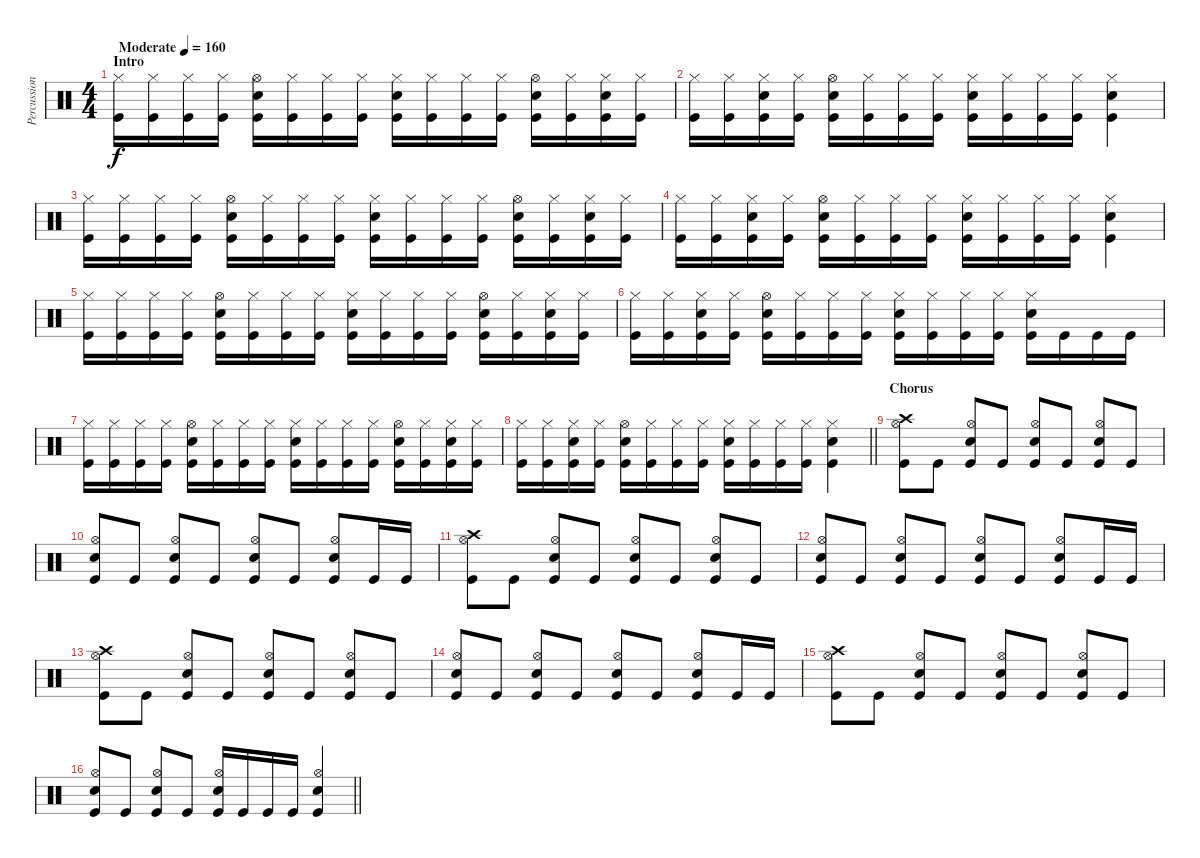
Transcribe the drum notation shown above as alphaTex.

\track ("Percussion" "Percussion") {instrument percussion}
\staff {score}
\articulation defaults
\ts (4 4)
\section ("" "Intro")
\tempo (160 "Moderate")
\clef neutral
\ks c
("Hi-Hat (closed)" "Kick (hit)").16{dy f} ("Hi-Hat (closed)" "Kick (hit)").16 ("Hi-Hat (closed)" "Kick (hit)").16 ("Hi-Hat (closed)" "Kick (hit)").16 ("Hi-Hat (open)" "Electric Snare (hit)" "Kick (hit)").16 ("Hi-Hat (closed)" "Kick (hit)").16 ("Hi-Hat (closed)" "Kick (hit)").16 ("Hi-Hat (closed)" "Kick (hit)").16 ("Hi-Hat (closed)" "Electric Snare (hit)" "Kick (hit)").16 ("Hi-Hat (closed)" "Kick (hit)").16 ("Hi-Hat (closed)" "Kick (hit)").16 ("Hi-Hat (closed)" "Kick (hit)").16 ("Hi-Hat (open)" "Electric Snare (hit)" "Kick (hit)").16 ("Hi-Hat (closed)" "Kick (hit)").16 ("Hi-Hat (closed)" "Electric Snare (hit)" "Kick (hit)").16 ("Hi-Hat (closed)" "Kick (hit)").16 |
("Hi-Hat (closed)" "Kick (hit)").16 ("Hi-Hat (closed)" "Kick (hit)").16 ("Hi-Hat (closed)" "Electric Snare (hit)" "Kick (hit)").16 ("Hi-Hat (closed)" "Kick (hit)").16 ("Hi-Hat (open)" "Electric Snare (hit)" "Kick (hit)").16 ("Hi-Hat (closed)" "Kick (hit)").16 ("Hi-Hat (closed)" "Kick (hit)").16 ("Hi-Hat (closed)" "Kick (hit)").16 ("Hi-Hat (closed)" "Electric Snare (hit)" "Kick (hit)").16 ("Hi-Hat (closed)" "Kick (hit)").16 ("Hi-Hat (closed)" "Kick (hit)").16 ("Hi-Hat (closed)" "Kick (hit)").16 ("Hi-Hat (closed)" "Electric Snare (hit)" "Kick (hit)").4 |
("Hi-Hat (closed)" "Kick (hit)").16 ("Hi-Hat (closed)" "Kick (hit)").16 ("Hi-Hat (closed)" "Kick (hit)").16 ("Hi-Hat (closed)" "Kick (hit)").16 ("Hi-Hat (open)" "Electric Snare (hit)" "Kick (hit)").16 ("Hi-Hat (closed)" "Kick (hit)").16 ("Hi-Hat (closed)" "Kick (hit)").16 ("Hi-Hat (closed)" "Kick (hit)").16 ("Hi-Hat (closed)" "Electric Snare (hit)" "Kick (hit)").16 ("Hi-Hat (closed)" "Kick (hit)").16 ("Hi-Hat (closed)" "Kick (hit)").16 ("Hi-Hat (closed)" "Kick (hit)").16 ("Hi-Hat (open)" "Electric Snare (hit)" "Kick (hit)").16 ("Hi-Hat (closed)" "Kick (hit)").16 ("Hi-Hat (closed)" "Electric Snare (hit)" "Kick (hit)").16 ("Hi-Hat (closed)" "Kick (hit)").16 |
("Hi-Hat (closed)" "Kick (hit)").16 ("Hi-Hat (closed)" "Kick (hit)").16 ("Hi-Hat (closed)" "Electric Snare (hit)" "Kick (hit)").16 ("Hi-Hat (closed)" "Kick (hit)").16 ("Hi-Hat (open)" "Electric Snare (hit)" "Kick (hit)").16 ("Hi-Hat (closed)" "Kick (hit)").16 ("Hi-Hat (closed)" "Kick (hit)").16 ("Hi-Hat (closed)" "Kick (hit)").16 ("Hi-Hat (closed)" "Electric Snare (hit)" "Kick (hit)").16 ("Hi-Hat (closed)" "Kick (hit)").16 ("Hi-Hat (closed)" "Kick (hit)").16 ("Hi-Hat (closed)" "Kick (hit)").16 ("Hi-Hat (closed)" "Electric Snare (hit)" "Kick (hit)").4 |
("Hi-Hat (closed)" "Kick (hit)").16 ("Hi-Hat (closed)" "Kick (hit)").16 ("Hi-Hat (closed)" "Kick (hit)").16 ("Hi-Hat (closed)" "Kick (hit)").16 ("Hi-Hat (open)" "Electric Snare (hit)" "Kick (hit)").16 ("Hi-Hat (closed)" "Kick (hit)").16 ("Hi-Hat (closed)" "Kick (hit)").16 ("Hi-Hat (closed)" "Kick (hit)").16 ("Hi-Hat (closed)" "Electric Snare (hit)" "Kick (hit)").16 ("Hi-Hat (closed)" "Kick (hit)").16 ("Hi-Hat (closed)" "Kick (hit)").16 ("Hi-Hat (closed)" "Kick (hit)").16 ("Hi-Hat (open)" "Electric Snare (hit)" "Kick (hit)").16 ("Hi-Hat (closed)" "Kick (hit)").16 ("Hi-Hat (closed)" "Electric Snare (hit)" "Kick (hit)").16 ("Hi-Hat (closed)" "Kick (hit)").16 |
("Hi-Hat (closed)" "Kick (hit)").16 ("Hi-Hat (closed)" "Kick (hit)").16 ("Hi-Hat (closed)" "Electric Snare (hit)" "Kick (hit)").16 ("Hi-Hat (closed)" "Kick (hit)").16 ("Hi-Hat (open)" "Electric Snare (hit)" "Kick (hit)").16 ("Hi-Hat (closed)" "Kick (hit)").16 ("Hi-Hat (closed)" "Kick (hit)").16 ("Hi-Hat (closed)" "Kick (hit)").16 ("Hi-Hat (closed)" "Electric Snare (hit)" "Kick (hit)").16 ("Hi-Hat (closed)" "Kick (hit)").16 ("Hi-Hat (closed)" "Kick (hit)").16 ("Hi-Hat (closed)" "Kick (hit)").16 ("Hi-Hat (closed)" "Electric Snare (hit)" "Kick (hit)").16 "Kick (hit)".16 "Kick (hit)".16 "Kick (hit)".16 |
("Hi-Hat (closed)" "Kick (hit)").16 ("Hi-Hat (closed)" "Kick (hit)").16 ("Hi-Hat (closed)" "Kick (hit)").16 ("Hi-Hat (closed)" "Kick (hit)").16 ("Hi-Hat (open)" "Electric Snare (hit)" "Kick (hit)").16 ("Hi-Hat (closed)" "Kick (hit)").16 ("Hi-Hat (closed)" "Kick (hit)").16 ("Hi-Hat (closed)" "Kick (hit)").16 ("Hi-Hat (closed)" "Electric Snare (hit)" "Kick (hit)").16 ("Hi-Hat (closed)" "Kick (hit)").16 ("Hi-Hat (closed)" "Kick (hit)").16 ("Hi-Hat (closed)" "Kick (hit)").16 ("Hi-Hat (open)" "Electric Snare (hit)" "Kick (hit)").16 ("Hi-Hat (closed)" "Kick (hit)").16 ("Hi-Hat (closed)" "Electric Snare (hit)" "Kick (hit)").16 ("Hi-Hat (closed)" "Kick (hit)").16 |
\barLineRight lightlight
("Hi-Hat (closed)" "Kick (hit)").16 ("Hi-Hat (closed)" "Kick (hit)").16 ("Hi-Hat (closed)" "Electric Snare (hit)" "Kick (hit)").16 ("Hi-Hat (closed)" "Kick (hit)").16 ("Hi-Hat (open)" "Electric Snare (hit)" "Kick (hit)").16 ("Hi-Hat (closed)" "Kick (hit)").16 ("Hi-Hat (closed)" "Kick (hit)").16 ("Hi-Hat (closed)" "Kick (hit)").16 ("Hi-Hat (closed)" "Electric Snare (hit)" "Kick (hit)").16 ("Hi-Hat (closed)" "Kick (hit)").16 ("Hi-Hat (closed)" "Kick (hit)").16 ("Hi-Hat (closed)" "Kick (hit)").16 ("Hi-Hat (closed)" "Electric Snare (hit)" "Kick (hit)").4 |
\section ("" "Chorus")
("Crash high (hit)" "Hi-Hat (open)" "Kick (hit)").8 "Kick (hit)".8 ("Hi-Hat (open)" "Electric Snare (hit)" "Kick (hit)").8 "Kick (hit)".8 ("Hi-Hat (open)" "Electric Snare (hit)" "Kick (hit)").8 "Kick (hit)".8 ("Hi-Hat (open)" "Electric Snare (hit)" "Kick (hit)").8 "Kick (hit)".8 |
("Hi-Hat (open)" "Electric Snare (hit)" "Kick (hit)").8 "Kick (hit)".8 ("Hi-Hat (open)" "Electric Snare (hit)" "Kick (hit)").8 "Kick (hit)".8 ("Hi-Hat (open)" "Electric Snare (hit)" "Kick (hit)").8 "Kick (hit)".8 ("Hi-Hat (open)" "Electric Snare (hit)" "Kick (hit)").8 "Kick (hit)".16 "Kick (hit)".16 |
("Crash high (hit)" "Hi-Hat (open)" "Kick (hit)").8 "Kick (hit)".8 ("Hi-Hat (open)" "Electric Snare (hit)" "Kick (hit)").8 "Kick (hit)".8 ("Hi-Hat (open)" "Electric Snare (hit)" "Kick (hit)").8 "Kick (hit)".8 ("Hi-Hat (open)" "Electric Snare (hit)" "Kick (hit)").8 "Kick (hit)".8 |
("Hi-Hat (open)" "Electric Snare (hit)" "Kick (hit)").8 "Kick (hit)".8 ("Hi-Hat (open)" "Electric Snare (hit)" "Kick (hit)").8 "Kick (hit)".8 ("Hi-Hat (open)" "Electric Snare (hit)" "Kick (hit)").8 "Kick (hit)".8 ("Hi-Hat (open)" "Electric Snare (hit)" "Kick (hit)").8 "Kick (hit)".16 "Kick (hit)".16 |
("Crash high (hit)" "Hi-Hat (open)" "Kick (hit)").8 "Kick (hit)".8 ("Hi-Hat (open)" "Electric Snare (hit)" "Kick (hit)").8 "Kick (hit)".8 ("Hi-Hat (open)" "Electric Snare (hit)" "Kick (hit)").8 "Kick (hit)".8 ("Hi-Hat (open)" "Electric Snare (hit)" "Kick (hit)").8 "Kick (hit)".8 |
("Hi-Hat (open)" "Electric Snare (hit)" "Kick (hit)").8 "Kick (hit)".8 ("Hi-Hat (open)" "Electric Snare (hit)" "Kick (hit)").8 "Kick (hit)".8 ("Hi-Hat (open)" "Electric Snare (hit)" "Kick (hit)").8 "Kick (hit)".8 ("Hi-Hat (open)" "Electric Snare (hit)" "Kick (hit)").8 "Kick (hit)".16 "Kick (hit)".16 |
("Crash high (hit)" "Hi-Hat (open)" "Kick (hit)").8 "Kick (hit)".8 ("Hi-Hat (open)" "Electric Snare (hit)" "Kick (hit)").8 "Kick (hit)".8 ("Hi-Hat (open)" "Electric Snare (hit)" "Kick (hit)").8 "Kick (hit)".8 ("Hi-Hat (open)" "Electric Snare (hit)" "Kick (hit)").8 "Kick (hit)".8 |
\barLineRight lightlight
("Hi-Hat (open)" "Electric Snare (hit)" "Kick (hit)").8 "Kick (hit)".8 ("Hi-Hat (open)" "Electric Snare (hit)" "Kick (hit)").8 "Kick (hit)".8 ("Hi-Hat (open)" "Electric Snare (hit)" "Kick (hit)").16 "Kick (hit)".16 "Kick (hit)".16 "Kick (hit)".16 ("Hi-Hat (open)" "Electric Snare (hit)" "Kick (hit)").4
